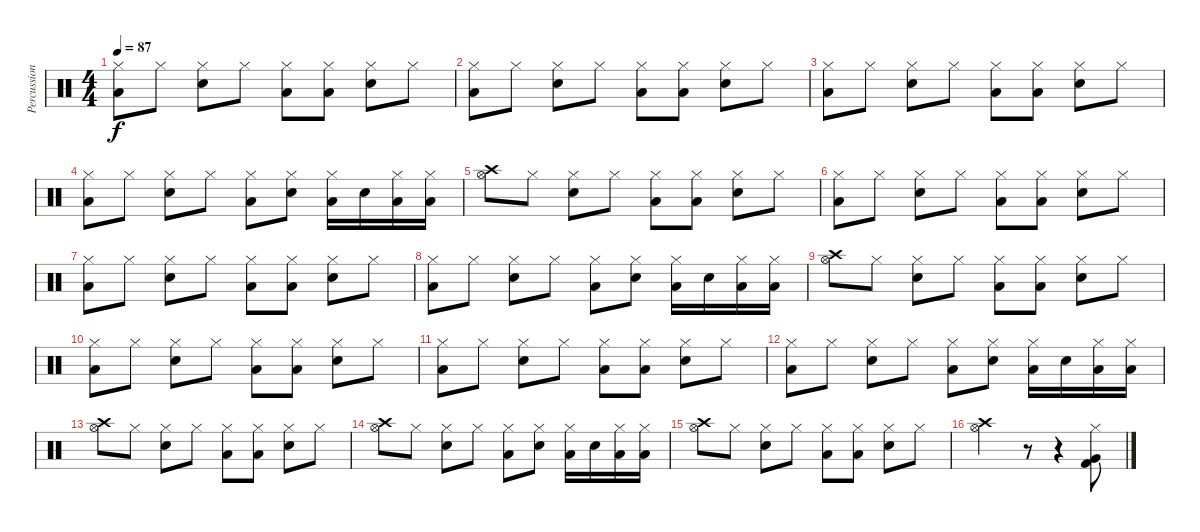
\track ("Percussion" "Percussion") {instrument percussion}
\staff {score}
\articulation defaults
\ts (4 4)
\tempo 87
\clef neutral
\ks c
("Hi-Hat (closed)" "Low Floor Tom (hit)").8{dy f} "Hi-Hat (closed)".8 ("Hi-Hat (closed)" "Electric Snare (hit)").8 "Hi-Hat (closed)".8 ("Hi-Hat (closed)" "Low Floor Tom (hit)").8 ("Hi-Hat (closed)" "Low Floor Tom (hit)").8 ("Hi-Hat (closed)" "Electric Snare (hit)").8 "Hi-Hat (closed)".8 |
("Hi-Hat (closed)" "Low Floor Tom (hit)").8 "Hi-Hat (closed)".8 ("Hi-Hat (closed)" "Electric Snare (hit)").8 "Hi-Hat (closed)".8 ("Hi-Hat (closed)" "Low Floor Tom (hit)").8 ("Hi-Hat (closed)" "Low Floor Tom (hit)").8 ("Hi-Hat (closed)" "Electric Snare (hit)").8 "Hi-Hat (closed)".8 |
("Hi-Hat (closed)" "Low Floor Tom (hit)").8 "Hi-Hat (closed)".8 ("Hi-Hat (closed)" "Electric Snare (hit)").8 "Hi-Hat (closed)".8 ("Hi-Hat (closed)" "Low Floor Tom (hit)").8 ("Hi-Hat (closed)" "Low Floor Tom (hit)").8 ("Hi-Hat (closed)" "Electric Snare (hit)").8 "Hi-Hat (closed)".8 |
("Hi-Hat (closed)" "Low Floor Tom (hit)").8 "Hi-Hat (closed)".8 ("Hi-Hat (closed)" "Electric Snare (hit)").8 "Hi-Hat (closed)".8 ("Hi-Hat (closed)" "Low Floor Tom (hit)").8 ("Hi-Hat (closed)" "Electric Snare (hit)").8 ("Hi-Hat (closed)" "Low Floor Tom (hit)").16 "Electric Snare (hit)".16 ("Hi-Hat (closed)" "Low Floor Tom (hit)").16 ("Hi-Hat (closed)" "Low Floor Tom (hit)").16 |
("Crash high (hit)" "Hi-Hat (open)").8 "Hi-Hat (closed)".8 ("Hi-Hat (closed)" "Electric Snare (hit)").8 "Hi-Hat (closed)".8 ("Hi-Hat (closed)" "Low Floor Tom (hit)").8 ("Hi-Hat (closed)" "Low Floor Tom (hit)").8 ("Hi-Hat (closed)" "Electric Snare (hit)").8 "Hi-Hat (closed)".8 |
("Hi-Hat (closed)" "Low Floor Tom (hit)").8 "Hi-Hat (closed)".8 ("Hi-Hat (closed)" "Electric Snare (hit)").8 "Hi-Hat (closed)".8 ("Hi-Hat (closed)" "Low Floor Tom (hit)").8 ("Hi-Hat (closed)" "Low Floor Tom (hit)").8 ("Hi-Hat (closed)" "Electric Snare (hit)").8 "Hi-Hat (closed)".8 |
("Hi-Hat (closed)" "Low Floor Tom (hit)").8 "Hi-Hat (closed)".8 ("Hi-Hat (closed)" "Electric Snare (hit)").8 "Hi-Hat (closed)".8 ("Hi-Hat (closed)" "Low Floor Tom (hit)").8 ("Hi-Hat (closed)" "Low Floor Tom (hit)").8 ("Hi-Hat (closed)" "Electric Snare (hit)").8 "Hi-Hat (closed)".8 |
("Hi-Hat (closed)" "Low Floor Tom (hit)").8 "Hi-Hat (closed)".8 ("Hi-Hat (closed)" "Electric Snare (hit)").8 "Hi-Hat (closed)".8 ("Hi-Hat (closed)" "Low Floor Tom (hit)").8 ("Hi-Hat (closed)" "Electric Snare (hit)").8 ("Hi-Hat (closed)" "Low Floor Tom (hit)").16 "Electric Snare (hit)".16 ("Hi-Hat (closed)" "Low Floor Tom (hit)").16 ("Hi-Hat (closed)" "Low Floor Tom (hit)").16 |
("Crash high (hit)" "Hi-Hat (open)").8 "Hi-Hat (closed)".8 ("Hi-Hat (closed)" "Electric Snare (hit)").8 "Hi-Hat (closed)".8 ("Hi-Hat (closed)" "Low Floor Tom (hit)").8 ("Hi-Hat (closed)" "Low Floor Tom (hit)").8 ("Hi-Hat (closed)" "Electric Snare (hit)").8 "Hi-Hat (closed)".8 |
("Hi-Hat (closed)" "Low Floor Tom (hit)").8 "Hi-Hat (closed)".8 ("Hi-Hat (closed)" "Electric Snare (hit)").8 "Hi-Hat (closed)".8 ("Hi-Hat (closed)" "Low Floor Tom (hit)").8 ("Hi-Hat (closed)" "Low Floor Tom (hit)").8 ("Hi-Hat (closed)" "Electric Snare (hit)").8 "Hi-Hat (closed)".8 |
("Hi-Hat (closed)" "Low Floor Tom (hit)").8 "Hi-Hat (closed)".8 ("Hi-Hat (closed)" "Electric Snare (hit)").8 "Hi-Hat (closed)".8 ("Hi-Hat (closed)" "Low Floor Tom (hit)").8 ("Hi-Hat (closed)" "Low Floor Tom (hit)").8 ("Hi-Hat (closed)" "Electric Snare (hit)").8 "Hi-Hat (closed)".8 |
("Hi-Hat (closed)" "Low Floor Tom (hit)").8 "Hi-Hat (closed)".8 ("Hi-Hat (closed)" "Electric Snare (hit)").8 "Hi-Hat (closed)".8 ("Hi-Hat (closed)" "Low Floor Tom (hit)").8 ("Hi-Hat (closed)" "Electric Snare (hit)").8 ("Hi-Hat (closed)" "Low Floor Tom (hit)").16 "Electric Snare (hit)".16 ("Hi-Hat (closed)" "Low Floor Tom (hit)").16 ("Hi-Hat (closed)" "Low Floor Tom (hit)").16 |
("Crash high (hit)" "Hi-Hat (open)").8 "Hi-Hat (closed)".8 ("Hi-Hat (closed)" "Electric Snare (hit)").8 "Hi-Hat (closed)".8 ("Hi-Hat (closed)" "Low Floor Tom (hit)").8 ("Hi-Hat (closed)" "Low Floor Tom (hit)").8 ("Hi-Hat (closed)" "Electric Snare (hit)").8 "Hi-Hat (closed)".8 |
("Crash high (hit)" "Hi-Hat (open)").8 "Hi-Hat (closed)".8 ("Hi-Hat (closed)" "Electric Snare (hit)").8 "Hi-Hat (closed)".8 ("Hi-Hat (closed)" "Low Floor Tom (hit)").8 ("Hi-Hat (closed)" "Electric Snare (hit)").8 ("Hi-Hat (closed)" "Low Floor Tom (hit)").16 "Electric Snare (hit)".16 ("Hi-Hat (closed)" "Low Floor Tom (hit)").16 ("Hi-Hat (closed)" "Low Floor Tom (hit)").16 |
("Crash high (hit)" "Hi-Hat (open)").8 "Hi-Hat (closed)".8 ("Hi-Hat (closed)" "Electric Snare (hit)").8 "Hi-Hat (closed)".8 ("Hi-Hat (closed)" "Low Floor Tom (hit)").8 ("Hi-Hat (closed)" "Low Floor Tom (hit)").8 ("Hi-Hat (closed)" "Electric Snare (hit)").8 "Hi-Hat (closed)".8 |
("Crash high (hit)" "Hi-Hat (open)").2 r.8 r.4 ("Hi-Hat (closed)" "Kick (hit) 2" "Very Low Tom (hit)").8
